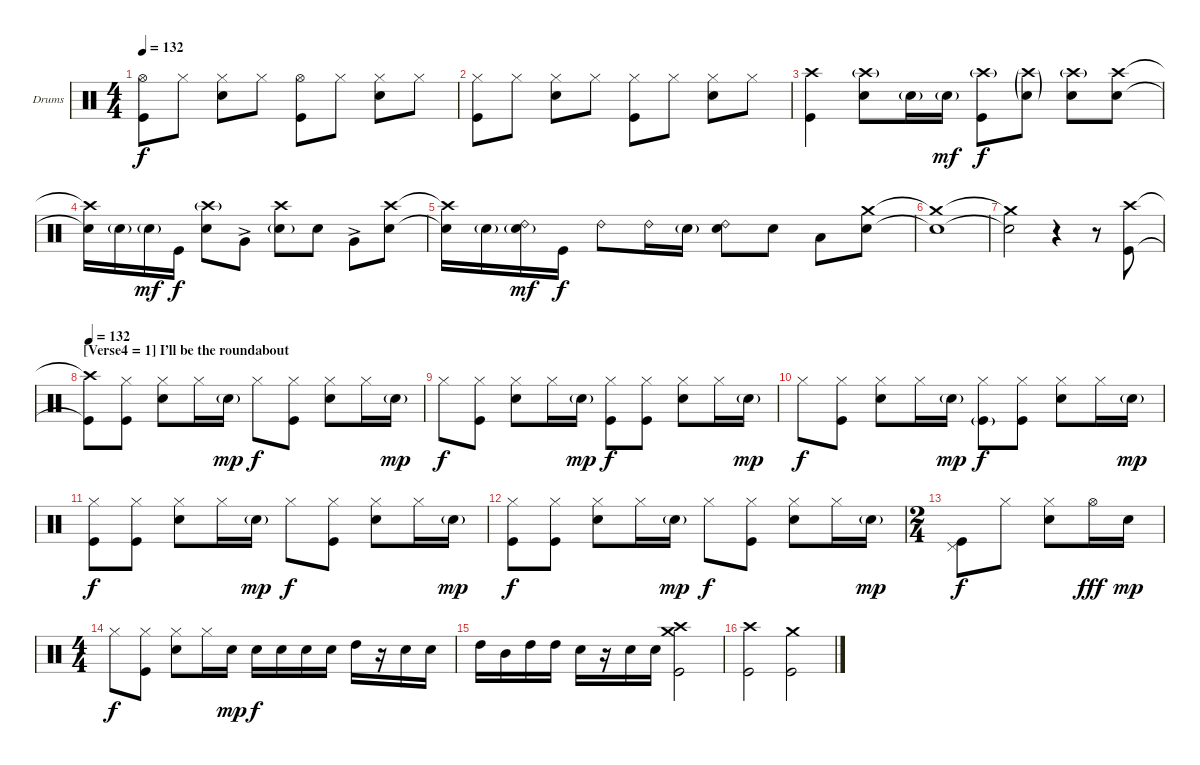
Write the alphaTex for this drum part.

\bracketExtendMode groupsimilarinstruments
\firstSystemTrackNameOrientation horizontal
\otherSystemsTrackNameOrientation horizontal
\track ("Drumkit" "Drums") {instrument percussion}
\staff {score}
\articulation defaults
\ts (4 4)
\tempo 132
\clef neutral
\ks aminor
("Hi-Hat (open)" "Kick (hit)").8{dy f} "Hi-Hat (closed)".8 ("Hi-Hat (closed)" "Snare (hit) 2").8 "Hi-Hat (closed)".8 ("Hi-Hat (open)" "Kick (hit)").8 "Hi-Hat (closed)".8 ("Snare (hit) 2" "Hi-Hat (closed)").8 "Hi-Hat (closed)".8 |
("Hi-Hat (closed)" "Kick (hit)").8 "Hi-Hat (closed)".8 ("Hi-Hat (closed)" "Snare (hit) 2").8 "Hi-Hat (closed)".8 ("Hi-Hat (closed)" "Kick (hit)").8 "Hi-Hat (closed)".8 ("Snare (hit) 2" "Hi-Hat (closed)").8 "Hi-Hat (closed)".8 |
("Kick (hit)" "Crash high (hit)").4 ("Snare (hit) 2" "Crash high (hit)"{g}).8 "Snare (hit) 2"{g}.16 "Snare (hit) 2"{g}.16{dy mf} ("Kick (hit)" "Crash high (hit)"{g}).8{dy f} ("Crash high (hit)"{g} "Snare (hit) 2"{g}).8 ("Snare (hit) 2" "Crash high (hit)"{g}).8 ("Crash high (hit)" "Snare (hit) 2").8 |
("Crash high (hit)"{t} "Snare (hit) 2"{t}).16 "Snare (hit) 2"{g}.16 "Snare (hit) 2"{g}.16{dy mf} "Kick (hit)".16{dy f} ("Snare (hit) 2" "Crash high (hit)"{g}).8 "Very Low Tom (hit)"{ac}.8 ("Crash high (hit)" "Snare (hit) 2"{g}).8 "Snare (hit) 2".8 "Very Low Tom (hit)"{ac}.8 ("Crash high (hit)" "Snare (hit) 2").8 |
("Crash high (hit)"{t} "Snare (hit) 2"{t}).16 "Snare (hit) 2"{g}.16 ("Snare (hit) 2"{g} "Ride (bell) 2").16{dy mf} "Kick (hit)".16{dy f} "Ride (bell) 2".8 "Ride (bell) 2".16 "Snare (hit) 2"{g}.16 ("Snare (hit) 2" "Ride (bell) 2").8 "Snare (hit) 2".8 "Low Tom (hit)".8 ("Snare (hit) 2" "Crash medium (hit)").8 |
("Snare (hit) 2"{t} "Crash medium (hit)"{t}).1 |
("Snare (hit) 2"{t} "Crash medium (hit)"{t}).2 r.4 r.8 ("Kick (hit)" "Crash high (hit)").8 |
\section ("" "[Verse4 = 1] I’ll be the roundabout")
\tempo 132
("Kick (hit)"{t} "Crash high (hit)"{t}).8 ("Hi-Hat (closed)" "Kick (hit)").8 ("Snare (hit) 2" "Hi-Hat (closed)").8 "Hi-Hat (closed)".16 "Snare (hit) 2"{g}.16{dy mp} "Hi-Hat (closed)".8{dy f} ("Kick (hit)" "Hi-Hat (closed)").8 ("Snare (hit) 2" "Hi-Hat (closed)").8 "Hi-Hat (closed)".16 "Snare (hit) 2"{g}.16{dy mp} |
"Hi-Hat (closed)".8{dy f} ("Hi-Hat (closed)" "Kick (hit)").8 ("Snare (hit) 2" "Hi-Hat (closed)").8 "Hi-Hat (closed)".16 "Snare (hit) 2"{g}.16{dy mp} ("Hi-Hat (closed)" "Kick (hit)").8{dy f} ("Kick (hit)" "Hi-Hat (closed)").8 ("Snare (hit) 2" "Hi-Hat (closed)").8 "Hi-Hat (closed)".16 "Snare (hit) 2"{g}.16{dy mp} |
"Hi-Hat (closed)".8{dy f} ("Hi-Hat (closed)" "Kick (hit)").8 ("Snare (hit) 2" "Hi-Hat (closed)").8 "Hi-Hat (closed)".16 "Snare (hit) 2"{g}.16{dy mp} ("Hi-Hat (closed)" "Kick (hit)"{g}).8{dy f} ("Kick (hit)" "Hi-Hat (closed)").8 ("Snare (hit) 2" "Hi-Hat (closed)").8 "Hi-Hat (closed)".16 "Snare (hit) 2"{g}.16{dy mp} |
("Hi-Hat (closed)" "Kick (hit)").8{dy f} ("Hi-Hat (closed)" "Kick (hit)").8 ("Snare (hit) 2" "Hi-Hat (closed)").8 "Hi-Hat (closed)".16 "Snare (hit) 2"{g}.16{dy mp} "Hi-Hat (closed)".8{dy f} ("Kick (hit)" "Hi-Hat (closed)").8 ("Snare (hit) 2" "Hi-Hat (closed)").8 "Hi-Hat (closed)".16 "Snare (hit) 2"{g}.16{dy mp} |
("Hi-Hat (closed)" "Kick (hit)").8{dy f} ("Hi-Hat (closed)" "Kick (hit)").8 ("Snare (hit) 2" "Hi-Hat (closed)").8 "Hi-Hat (closed)".16 "Snare (hit) 2"{g}.16{dy mp} "Hi-Hat (closed)".8{dy f} ("Kick (hit)" "Hi-Hat (closed)").8 ("Snare (hit) 2" "Hi-Hat (closed)").8 "Hi-Hat (closed)".16 "Snare (hit) 2"{g}.16{dy mp} |
\ts (2 4)
("Kick (hit)" "Pedal Hi-Hat (hit)").8{dy f} "Hi-Hat (closed)".8 ("Snare (hit) 2" "Hi-Hat (closed)").8 "Hi-Hat (open)".16{dy fff} "Snare (hit) 2".16{dy mp} |
\ts (4 4)
"Hi-Hat (closed)".8{dy f} ("Kick (hit)" "Hi-Hat (closed)").8 ("Snare (hit) 2" "Hi-Hat (closed)").8 "Hi-Hat (closed)".16 "Snare (hit) 2".16{dy mp} "Snare (hit) 2".16{dy f} "Snare (hit) 2".16 "Snare (hit) 2".16 "Snare (hit) 2".16 "High Tom (hit)".16 r.16 "Snare (hit) 2".16 "Snare (hit) 2".16 |
"High Tom (hit)".16 "Mid Tom (hit)".16 "High Tom (hit)".16 "High Tom (hit)".16 "Snare (hit) 2".16 r.16 "Snare (hit) 2".16 "Snare (hit) 2".16 ("Kick (hit)" "Crash high (hit)" "Crash medium (hit)").2 |
("Kick (hit)" "Crash high (hit)").2 ("Kick (hit)" "Crash medium (hit)").2
